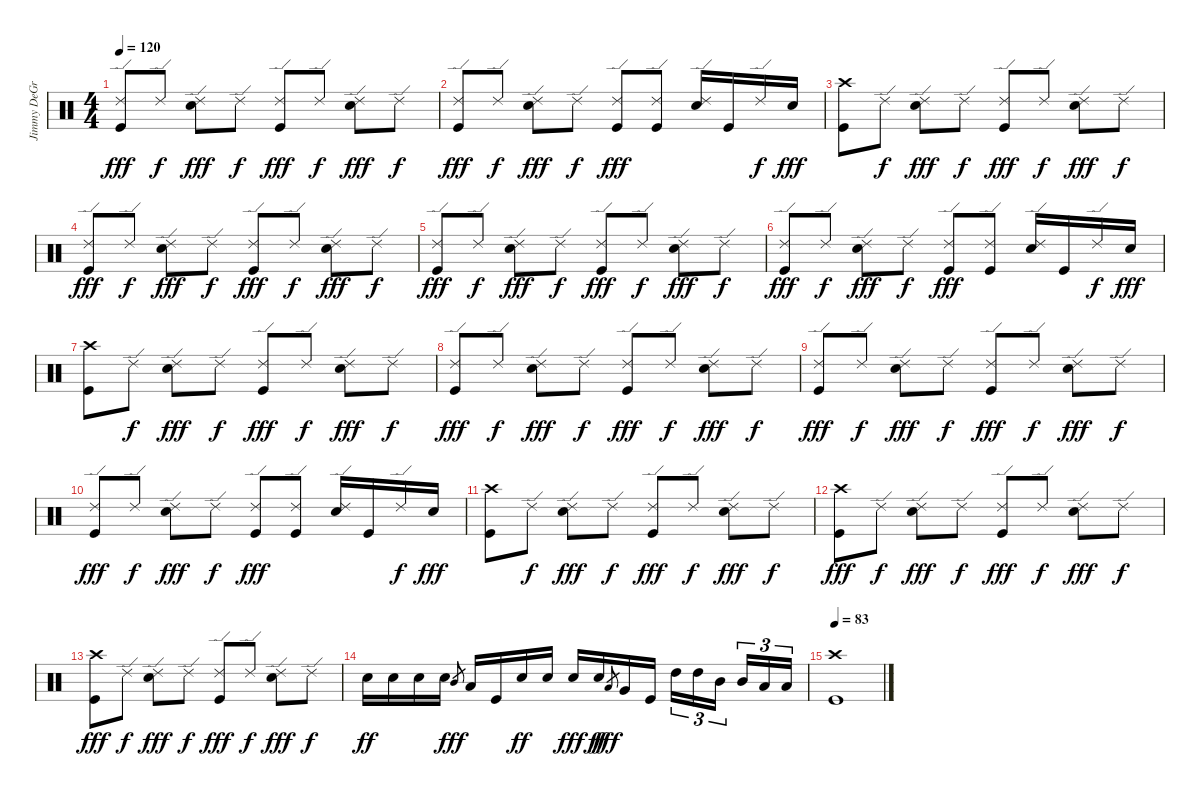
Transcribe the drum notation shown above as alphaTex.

\track ("Jimmy DeGrasso" "Jimmy DeGr") {instrument percussion}
\staff {score}
\articulation defaults
\ts (4 4)
\tempo 120
\clef neutral
\ks c
("Kick (hit)" "Ride (edge) 2").8{dy fff} "Ride (edge) 2".8{dy f} ("Electric Snare (hit)" "Ride (edge) 2").8{dy fff} "Ride (edge) 2".8{dy f} ("Kick (hit)" "Ride (edge) 2").8{dy fff} "Ride (edge) 2".8{dy f} ("Electric Snare (hit)" "Ride (edge) 2").8{dy fff} "Ride (edge) 2".8{dy f} |
("Kick (hit)" "Ride (edge) 2").8{dy fff} "Ride (edge) 2".8{dy f} ("Electric Snare (hit)" "Ride (edge) 2").8{dy fff} "Ride (edge) 2".8{dy f} ("Kick (hit)" "Ride (edge) 2").8{dy fff} ("Kick (hit)" "Ride (edge) 2").8 ("Electric Snare (hit)" "Ride (edge) 2").16 "Kick (hit)".16 "Ride (edge) 2".16{dy f} "Electric Snare (hit)".16{dy fff} |
("Kick (hit)" "Crash high (hit)").8 "Ride (edge) 2".8{dy f} ("Electric Snare (hit)" "Ride (edge) 2").8{dy fff} "Ride (edge) 2".8{dy f} ("Kick (hit)" "Ride (edge) 2").8{dy fff} "Ride (edge) 2".8{dy f} ("Electric Snare (hit)" "Ride (edge) 2").8{dy fff} "Ride (edge) 2".8{dy f} |
("Kick (hit)" "Ride (edge) 2").8{dy fff} "Ride (edge) 2".8{dy f} ("Electric Snare (hit)" "Ride (edge) 2").8{dy fff} "Ride (edge) 2".8{dy f} ("Kick (hit)" "Ride (edge) 2").8{dy fff} "Ride (edge) 2".8{dy f} ("Electric Snare (hit)" "Ride (edge) 2").8{dy fff} "Ride (edge) 2".8{dy f} |
("Kick (hit)" "Ride (edge) 2").8{dy fff} "Ride (edge) 2".8{dy f} ("Electric Snare (hit)" "Ride (edge) 2").8{dy fff} "Ride (edge) 2".8{dy f} ("Kick (hit)" "Ride (edge) 2").8{dy fff} "Ride (edge) 2".8{dy f} ("Electric Snare (hit)" "Ride (edge) 2").8{dy fff} "Ride (edge) 2".8{dy f} |
("Kick (hit)" "Ride (edge) 2").8{dy fff} "Ride (edge) 2".8{dy f} ("Electric Snare (hit)" "Ride (edge) 2").8{dy fff} "Ride (edge) 2".8{dy f} ("Kick (hit)" "Ride (edge) 2").8{dy fff} ("Kick (hit)" "Ride (edge) 2").8 ("Electric Snare (hit)" "Ride (edge) 2").16 "Kick (hit)".16 "Ride (edge) 2".16{dy f} "Electric Snare (hit)".16{dy fff} |
("Kick (hit)" "Crash high (hit)").8 "Ride (edge) 2".8{dy f} ("Electric Snare (hit)" "Ride (edge) 2").8{dy fff} "Ride (edge) 2".8{dy f} ("Kick (hit)" "Ride (edge) 2").8{dy fff} "Ride (edge) 2".8{dy f} ("Electric Snare (hit)" "Ride (edge) 2").8{dy fff} "Ride (edge) 2".8{dy f} |
("Kick (hit)" "Ride (edge) 2").8{dy fff} "Ride (edge) 2".8{dy f} ("Electric Snare (hit)" "Ride (edge) 2").8{dy fff} "Ride (edge) 2".8{dy f} ("Kick (hit)" "Ride (edge) 2").8{dy fff} "Ride (edge) 2".8{dy f} ("Electric Snare (hit)" "Ride (edge) 2").8{dy fff} "Ride (edge) 2".8{dy f} |
("Kick (hit)" "Ride (edge) 2").8{dy fff} "Ride (edge) 2".8{dy f} ("Electric Snare (hit)" "Ride (edge) 2").8{dy fff} "Ride (edge) 2".8{dy f} ("Kick (hit)" "Ride (edge) 2").8{dy fff} "Ride (edge) 2".8{dy f} ("Electric Snare (hit)" "Ride (edge) 2").8{dy fff} "Ride (edge) 2".8{dy f} |
("Kick (hit)" "Ride (edge) 2").8{dy fff} "Ride (edge) 2".8{dy f} ("Electric Snare (hit)" "Ride (edge) 2").8{dy fff} "Ride (edge) 2".8{dy f} ("Kick (hit)" "Ride (edge) 2").8{dy fff} ("Kick (hit)" "Ride (edge) 2").8 ("Electric Snare (hit)" "Ride (edge) 2").16 "Kick (hit)".16 "Ride (edge) 2".16{dy f} "Electric Snare (hit)".16{dy fff} |
("Kick (hit)" "Crash high (hit)").8 "Ride (edge) 2".8{dy f} ("Electric Snare (hit)" "Ride (edge) 2").8{dy fff} "Ride (edge) 2".8{dy f} ("Kick (hit)" "Ride (edge) 2").8{dy fff} "Ride (edge) 2".8{dy f} ("Electric Snare (hit)" "Ride (edge) 2").8{dy fff} "Ride (edge) 2".8{dy f} |
("Kick (hit)" "Crash high (hit)").8{dy fff} "Ride (edge) 2".8{dy f} ("Electric Snare (hit)" "Ride (edge) 2").8{dy fff} "Ride (edge) 2".8{dy f} ("Kick (hit)" "Ride (edge) 2").8{dy fff} "Ride (edge) 2".8{dy f} ("Electric Snare (hit)" "Ride (edge) 2").8{dy fff} "Ride (edge) 2".8{dy f} |
("Kick (hit)" "Crash high (hit)").8{dy fff} "Ride (edge) 2".8{dy f} ("Electric Snare (hit)" "Ride (edge) 2").8{dy fff} "Ride (edge) 2".8{dy f} ("Kick (hit)" "Ride (edge) 2").8{dy fff} "Ride (edge) 2".8{dy f} ("Electric Snare (hit)" "Ride (edge) 2").8{dy fff} "Ride (edge) 2".8{dy f} |
"Electric Snare (hit)".16{dy ff} "Electric Snare (hit)".16 "Electric Snare (hit)".16 "Electric Snare (hit)".16 "Mid Tom (hit)".8{gr dy fff} "Low Tom (hit)".16 "Kick (hit)".16 "Electric Snare (hit)".16{dy ff} "Electric Snare (hit)".16 "Electric Snare (hit)".16{dy fff} "Electric Snare (hit)".16{dy ff} "Low Tom (hit)".8{gr dy fff} "Very Low Tom (hit)".16 "Kick (hit)".16 "High Tom (hit)".16{tu (3 2)} "High Tom (hit)".16{tu (3 2)} "Mid Tom (hit)".16{tu (3 2) beam splitsecondary} "Mid Tom (hit)".16{tu (3 2)} "Low Tom (hit)".16{tu (3 2)} "Low Tom (hit)".16{tu (3 2)} |
\tempo 83
("Kick (hit)" "Crash high (hit)").1
